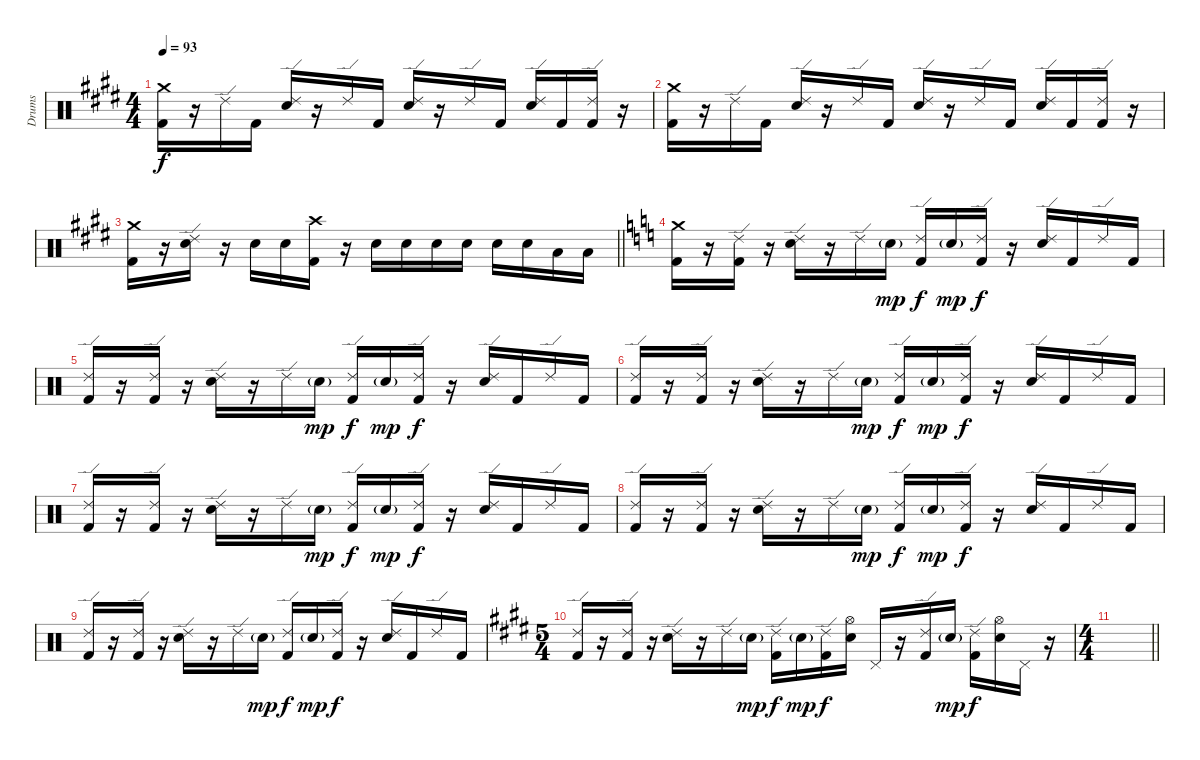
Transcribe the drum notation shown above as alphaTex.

\track ("Drums" "Drums") {instrument percussion}
\staff {score}
\articulation defaults
\ts (4 4)
\tempo 93
\clef neutral
\ks e
("Crash medium (hit)" "Kick (hit) 2").16{dy f} r.16 "Ride (edge) 2".16 "Kick (hit) 2".16 ("Ride (edge) 2" "Snare (hit) 2").16 r.16 "Ride (edge) 2".16 "Kick (hit) 2".16 ("Ride (edge) 2" "Snare (hit) 2").16 r.16 "Ride (edge) 2".16 "Kick (hit) 2".16 ("Ride (edge) 2" "Snare (hit) 2").16 "Kick (hit) 2".16 ("Ride (edge) 2" "Kick (hit) 2").16 r.16 |
("Crash medium (hit)" "Kick (hit) 2").16 r.16 "Ride (edge) 2".16 "Kick (hit) 2".16 ("Ride (edge) 2" "Snare (hit) 2").16 r.16 "Ride (edge) 2".16 "Kick (hit) 2".16 ("Ride (edge) 2" "Snare (hit) 2").16 r.16 "Ride (edge) 2".16 "Kick (hit) 2".16 ("Ride (edge) 2" "Snare (hit) 2").16 "Kick (hit) 2".16 ("Ride (edge) 2" "Kick (hit) 2").16 r.16 |
\barLineRight lightlight
("Crash medium (hit)" "Kick (hit) 2").16 r.16 ("Ride (edge) 2" "Snare (hit) 2").16 r.16 "Snare (hit) 2".16 "Snare (hit) 2".16 ("Crash high (hit)" "Kick (hit) 2").16 r.16 "Snare (hit) 2".16 "Snare (hit) 2".16 "Snare (hit) 2".16 "Snare (hit) 2".16 "Snare (hit) 2".16 "Snare (hit) 2".16 "Low Tom (hit)".16 "Low Tom (hit)".16 |
\ks c
("Crash medium (hit)" "Kick (hit) 2").16 r.16 ("Ride (edge) 2" "Kick (hit) 2").16 r.16 ("Ride (edge) 2" "Snare (hit) 2").16 r.16 "Ride (edge) 2".16 "Snare (hit) 2"{g}.16{dy mp} ("Ride (edge) 2" "Kick (hit) 2").16{dy f} "Snare (hit) 2"{g}.16{dy mp} ("Ride (edge) 2" "Kick (hit) 2").16{dy f} r.16 ("Ride (edge) 2" "Snare (hit) 2").16 "Kick (hit) 2".16 "Ride (edge) 2".16 "Kick (hit) 2".16 |
("Ride (edge) 2" "Kick (hit) 2").16 r.16 ("Ride (edge) 2" "Kick (hit) 2").16 r.16 ("Ride (edge) 2" "Snare (hit) 2").16 r.16 "Ride (edge) 2".16 "Snare (hit) 2"{g}.16{dy mp} ("Ride (edge) 2" "Kick (hit) 2").16{dy f} "Snare (hit) 2"{g}.16{dy mp} ("Ride (edge) 2" "Kick (hit) 2").16{dy f} r.16 ("Ride (edge) 2" "Snare (hit) 2").16 "Kick (hit) 2".16 "Ride (edge) 2".16 "Kick (hit) 2".16 |
("Ride (edge) 2" "Kick (hit) 2").16 r.16 ("Ride (edge) 2" "Kick (hit) 2").16 r.16 ("Ride (edge) 2" "Snare (hit) 2").16 r.16 "Ride (edge) 2".16 "Snare (hit) 2"{g}.16{dy mp} ("Ride (edge) 2" "Kick (hit) 2").16{dy f} "Snare (hit) 2"{g}.16{dy mp} ("Ride (edge) 2" "Kick (hit) 2").16{dy f} r.16 ("Ride (edge) 2" "Snare (hit) 2").16 "Kick (hit) 2".16 "Ride (edge) 2".16 "Kick (hit) 2".16 |
("Ride (edge) 2" "Kick (hit) 2").16 r.16 ("Ride (edge) 2" "Kick (hit) 2").16 r.16 ("Ride (edge) 2" "Snare (hit) 2").16 r.16 "Ride (edge) 2".16 "Snare (hit) 2"{g}.16{dy mp} ("Ride (edge) 2" "Kick (hit) 2").16{dy f} "Snare (hit) 2"{g}.16{dy mp} ("Ride (edge) 2" "Kick (hit) 2").16{dy f} r.16 ("Ride (edge) 2" "Snare (hit) 2").16 "Kick (hit) 2".16 "Ride (edge) 2".16 "Kick (hit) 2".16 |
("Ride (edge) 2" "Kick (hit) 2").16 r.16 ("Ride (edge) 2" "Kick (hit) 2").16 r.16 ("Ride (edge) 2" "Snare (hit) 2").16 r.16 "Ride (edge) 2".16 "Snare (hit) 2"{g}.16{dy mp} ("Ride (edge) 2" "Kick (hit) 2").16{dy f} "Snare (hit) 2"{g}.16{dy mp} ("Ride (edge) 2" "Kick (hit) 2").16{dy f} r.16 ("Ride (edge) 2" "Snare (hit) 2").16 "Kick (hit) 2".16 "Ride (edge) 2".16 "Kick (hit) 2".16 |
("Ride (edge) 2" "Kick (hit) 2").16 r.16 ("Ride (edge) 2" "Kick (hit) 2").16 r.16 ("Ride (edge) 2" "Snare (hit) 2").16 r.16 "Ride (edge) 2".16 "Snare (hit) 2"{g}.16{dy mp} ("Ride (edge) 2" "Kick (hit) 2").16{dy f} "Snare (hit) 2"{g}.16{dy mp} ("Ride (edge) 2" "Kick (hit) 2").16{dy f} r.16 ("Ride (edge) 2" "Snare (hit) 2").16 "Kick (hit) 2".16 "Ride (edge) 2".16 "Kick (hit) 2".16 |
\ts (5 4)
\ks e
("Ride (edge) 2" "Kick (hit) 2").16 r.16 ("Ride (edge) 2" "Kick (hit) 2").16 r.16 ("Ride (edge) 2" "Snare (hit) 2").16 r.16 "Ride (edge) 2".16 "Snare (hit) 2"{g}.16{dy mp} ("Ride (edge) 2" "Kick (hit) 2").16{dy f} "Snare (hit) 2"{g}.16{dy mp} ("Ride (edge) 2" "Kick (hit) 2").16{dy f} ("Hi-Hat (open)" "Snare (hit) 2").16 "Pedal Hi-Hat (hit)".16 r.16 ("Ride (edge) 2" "Kick (hit) 2").16 "Snare (hit) 2"{g}.16{dy mp} ("Ride (edge) 2" "Kick (hit) 2").16{dy f} ("Hi-Hat (open)" "Snare (hit) 2").16 "Pedal Hi-Hat (hit)".16 r.16 |
\ts (4 4)
\barLineRight lightlight
